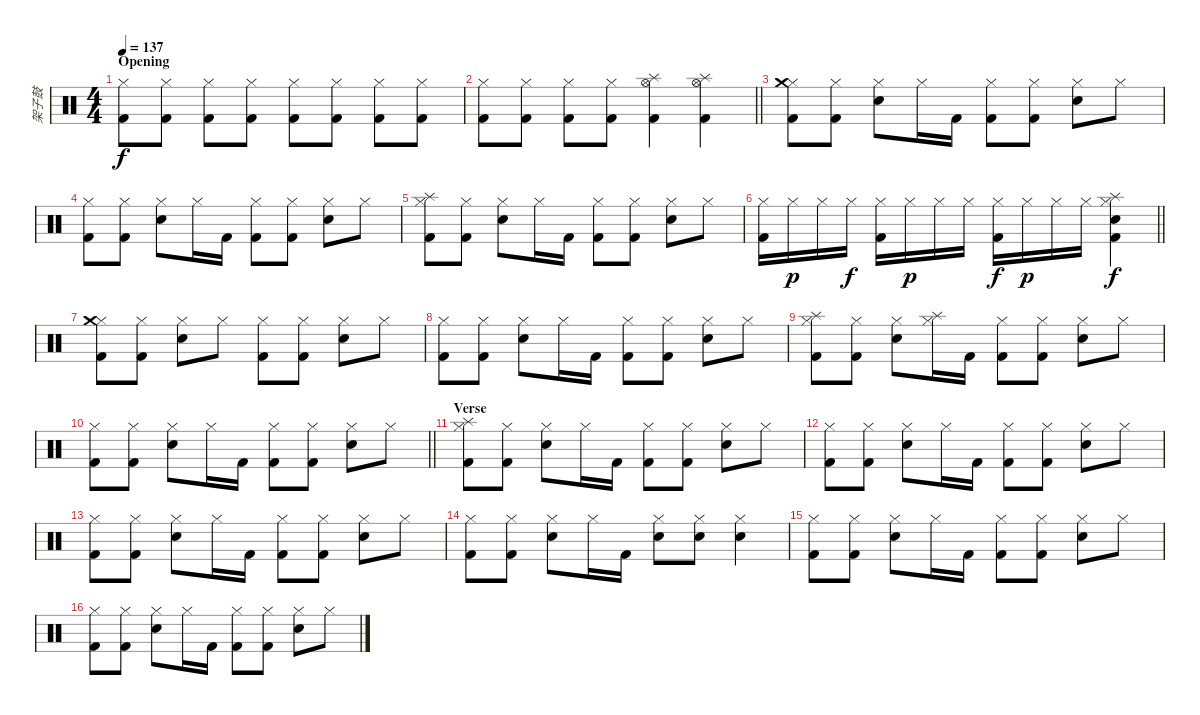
\track ("架子鼓" "架子鼓") {instrument percussion}
\staff {score}
\articulation defaults
\ts (4 4)
\section ("" "Opening")
\tempo 137
\clef neutral
\ks c
("Hi-Hat (closed)" "Kick (hit) 2").8{dy f} ("Hi-Hat (closed)" "Kick (hit) 2").8 ("Hi-Hat (closed)" "Kick (hit) 2").8 ("Hi-Hat (closed)" "Kick (hit) 2").8 ("Hi-Hat (closed)" "Kick (hit) 2").8 ("Hi-Hat (closed)" "Kick (hit) 2").8 ("Hi-Hat (closed)" "Kick (hit) 2").8 ("Hi-Hat (closed)" "Kick (hit) 2").8 |
\barLineRight lightlight
("Hi-Hat (closed)" "Kick (hit) 2").8 ("Hi-Hat (closed)" "Kick (hit) 2").8 ("Hi-Hat (closed)" "Kick (hit) 2").8 ("Hi-Hat (closed)" "Kick (hit) 2").8 ("Hi-Hat (open)" "Splash (hit)" "Kick (hit) 2").4 ("Hi-Hat (open)" "Splash (hit)" "Kick (hit) 2").4 |
("Hi-Hat (closed)" "Crash medium (hit)" "Kick (hit) 2").8 ("Hi-Hat (closed)" "Kick (hit) 2").8 ("Hi-Hat (closed)" "Snare (hit) 2").8 "Hi-Hat (closed)".16 "Kick (hit) 2".16 ("Hi-Hat (closed)" "Kick (hit) 2").8 ("Hi-Hat (closed)" "Kick (hit) 2").8 ("Hi-Hat (closed)" "Snare (hit) 2").8 "Hi-Hat (closed)".8 |
("Hi-Hat (closed)" "Kick (hit) 2").8 ("Hi-Hat (closed)" "Kick (hit) 2").8 ("Hi-Hat (closed)" "Snare (hit) 2").8 "Hi-Hat (closed)".16 "Kick (hit) 2".16 ("Hi-Hat (closed)" "Kick (hit) 2").8 ("Hi-Hat (closed)" "Kick (hit) 2").8 ("Hi-Hat (closed)" "Snare (hit) 2").8 "Hi-Hat (closed)".8 |
("Hi-Hat (closed)" "Splash (hit)" "Kick (hit) 2").8 ("Hi-Hat (closed)" "Kick (hit) 2").8 ("Hi-Hat (closed)" "Snare (hit) 2").8 "Hi-Hat (closed)".16 "Kick (hit) 2".16 ("Hi-Hat (closed)" "Kick (hit) 2").8 ("Hi-Hat (closed)" "Kick (hit) 2").8 ("Hi-Hat (closed)" "Snare (hit) 2").8 "Hi-Hat (closed)".8 |
\barLineRight lightlight
("Hi-Hat (closed)" "Kick (hit) 2").16 "Hi-Hat (closed)".16{dy p} "Hi-Hat (closed)".16 "Hi-Hat (closed)".16{dy f} ("Hi-Hat (closed)" "Kick (hit) 2").16 "Hi-Hat (closed)".16{dy p} "Hi-Hat (closed)".16 "Hi-Hat (closed)".16 ("Hi-Hat (closed)" "Kick (hit) 2").16{dy f} "Hi-Hat (closed)".16{dy p} "Hi-Hat (closed)".16 "Hi-Hat (closed)".16 ("Hi-Hat (closed)" "Snare (hit) 2" "Splash (hit)" "Kick (hit) 2").4{dy f} |
("Hi-Hat (closed)" "Crash medium (hit)" "Kick (hit) 2").8 ("Hi-Hat (closed)" "Kick (hit) 2").8 ("Hi-Hat (closed)" "Snare (hit) 2").8 "Hi-Hat (closed)".8 ("Hi-Hat (closed)" "Kick (hit) 2").8 ("Hi-Hat (closed)" "Kick (hit) 2").8 ("Hi-Hat (closed)" "Snare (hit) 2").8 "Hi-Hat (closed)".8 |
("Hi-Hat (closed)" "Kick (hit) 2").8 ("Hi-Hat (closed)" "Kick (hit) 2").8 ("Hi-Hat (closed)" "Snare (hit) 2").8 "Hi-Hat (closed)".16 "Kick (hit) 2".16 ("Hi-Hat (closed)" "Kick (hit) 2").8 ("Hi-Hat (closed)" "Kick (hit) 2").8 ("Hi-Hat (closed)" "Snare (hit) 2").8 "Hi-Hat (closed)".8 |
("Hi-Hat (closed)" "Splash (hit)" "Kick (hit) 2").8 ("Hi-Hat (closed)" "Kick (hit) 2").8 ("Hi-Hat (closed)" "Snare (hit) 2").8 ("Hi-Hat (closed)" "Splash (hit)").16 "Kick (hit) 2".16 ("Hi-Hat (closed)" "Kick (hit) 2").8 ("Hi-Hat (closed)" "Kick (hit) 2").8 ("Hi-Hat (closed)" "Snare (hit) 2").8 "Hi-Hat (closed)".8 |
\barLineRight lightlight
("Hi-Hat (closed)" "Kick (hit) 2").8 ("Hi-Hat (closed)" "Kick (hit) 2").8 ("Hi-Hat (closed)" "Snare (hit) 2").8 "Hi-Hat (closed)".16 "Kick (hit) 2".16 ("Hi-Hat (closed)" "Kick (hit) 2").8 ("Hi-Hat (closed)" "Kick (hit) 2").8 ("Hi-Hat (closed)" "Snare (hit) 2").8 "Hi-Hat (closed)".8 |
\section ("" "Verse")
("Hi-Hat (closed)" "Splash (hit)" "Kick (hit) 2").8 ("Hi-Hat (closed)" "Kick (hit) 2").8 ("Hi-Hat (closed)" "Snare (hit) 2").8 "Hi-Hat (closed)".16 "Kick (hit) 2".16 ("Hi-Hat (closed)" "Kick (hit) 2").8 ("Hi-Hat (closed)" "Kick (hit) 2").8 ("Hi-Hat (closed)" "Snare (hit) 2").8 "Hi-Hat (closed)".8 |
("Hi-Hat (closed)" "Kick (hit) 2").8 ("Hi-Hat (closed)" "Kick (hit) 2").8 ("Hi-Hat (closed)" "Snare (hit) 2").8 "Hi-Hat (closed)".16 "Kick (hit) 2".16 ("Hi-Hat (closed)" "Kick (hit) 2").8 ("Hi-Hat (closed)" "Kick (hit) 2").8 ("Hi-Hat (closed)" "Snare (hit) 2").8 "Hi-Hat (closed)".8 |
("Hi-Hat (closed)" "Kick (hit) 2").8 ("Hi-Hat (closed)" "Kick (hit) 2").8 ("Hi-Hat (closed)" "Snare (hit) 2").8 "Hi-Hat (closed)".16 "Kick (hit) 2".16 ("Hi-Hat (closed)" "Kick (hit) 2").8 ("Hi-Hat (closed)" "Kick (hit) 2").8 ("Hi-Hat (closed)" "Snare (hit) 2").8 "Hi-Hat (closed)".8 |
("Hi-Hat (closed)" "Kick (hit) 2").8 ("Hi-Hat (closed)" "Kick (hit) 2").8 ("Hi-Hat (closed)" "Snare (hit) 2").8 "Hi-Hat (closed)".16 "Kick (hit) 2".16 ("Hi-Hat (closed)" "Snare (hit) 2").8 ("Hi-Hat (closed)" "Snare (hit) 2").8 ("Hi-Hat (closed)" "Snare (hit) 2").4 |
("Hi-Hat (closed)" "Kick (hit) 2").8 ("Hi-Hat (closed)" "Kick (hit) 2").8 ("Hi-Hat (closed)" "Snare (hit) 2").8 "Hi-Hat (closed)".16 "Kick (hit) 2".16 ("Hi-Hat (closed)" "Kick (hit) 2").8 ("Hi-Hat (closed)" "Kick (hit) 2").8 ("Hi-Hat (closed)" "Snare (hit) 2").8 "Hi-Hat (closed)".8 |
("Hi-Hat (closed)" "Kick (hit) 2").8 ("Hi-Hat (closed)" "Kick (hit) 2").8 ("Hi-Hat (closed)" "Snare (hit) 2").8 "Hi-Hat (closed)".16 "Kick (hit) 2".16 ("Hi-Hat (closed)" "Kick (hit) 2").8 ("Hi-Hat (closed)" "Kick (hit) 2").8 ("Hi-Hat (closed)" "Snare (hit) 2").8 "Hi-Hat (closed)".8
